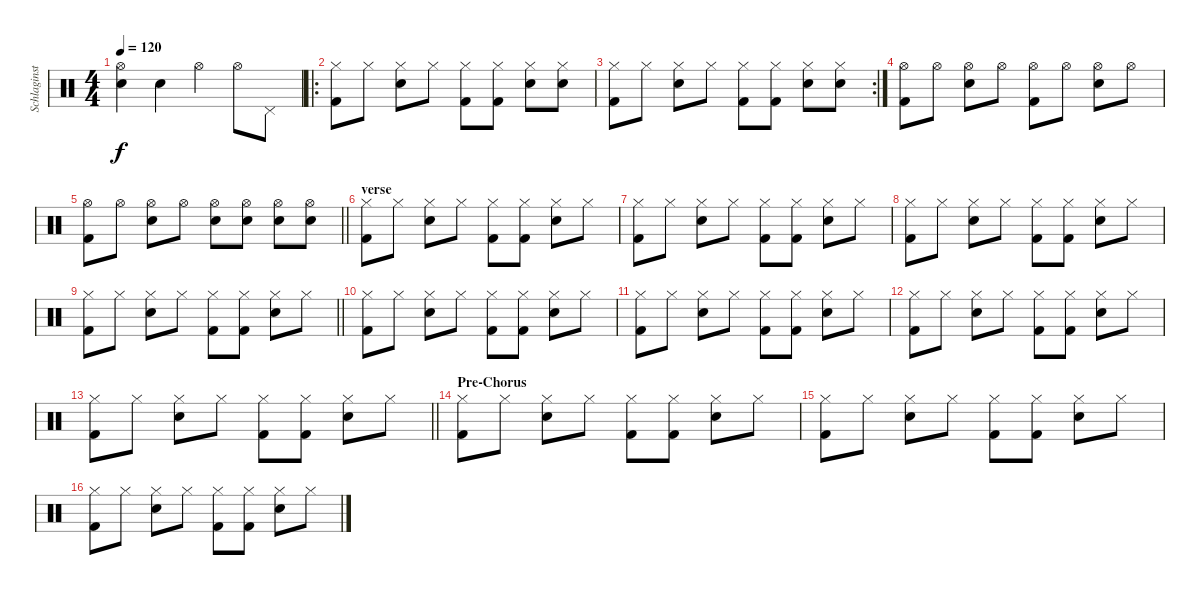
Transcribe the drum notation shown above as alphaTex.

\track ("Schlaginstrumente - Auswahl" "Schlaginst") {instrument percussion}
\staff {score}
\articulation defaults
\ts (4 4)
\tempo 120
\clef neutral
\ks c
("Hi-Hat (open)" "Electric Snare (hit)").4{dy f} "Electric Snare (hit)".4 "Hi-Hat (open)".4 "Hi-Hat (open)".8 "Pedal Hi-Hat (hit)".8 |
\ro
("Hi-Hat (closed)" "Kick (hit) 2").8 "Hi-Hat (closed)".8 ("Hi-Hat (closed)" "Electric Snare (hit)").8 "Hi-Hat (closed)".8 ("Hi-Hat (closed)" "Kick (hit) 2").8 ("Hi-Hat (closed)" "Kick (hit) 2").8 ("Hi-Hat (closed)" "Electric Snare (hit)").8 ("Hi-Hat (closed)" "Electric Snare (hit)").8 |
\rc 2
("Hi-Hat (closed)" "Kick (hit) 2").8 "Hi-Hat (closed)".8 ("Hi-Hat (closed)" "Electric Snare (hit)").8 "Hi-Hat (closed)".8 ("Hi-Hat (closed)" "Kick (hit) 2").8 ("Hi-Hat (closed)" "Kick (hit) 2").8 ("Hi-Hat (closed)" "Electric Snare (hit)").8 ("Hi-Hat (closed)" "Electric Snare (hit)").8 |
("Hi-Hat (open)" "Kick (hit) 2").8 "Hi-Hat (open)".8 ("Hi-Hat (open)" "Electric Snare (hit)").8 "Hi-Hat (open)".8 ("Hi-Hat (open)" "Kick (hit) 2").8 "Hi-Hat (open)".8 ("Hi-Hat (open)" "Electric Snare (hit)").8 "Hi-Hat (open)".8 |
\barLineRight lightlight
("Hi-Hat (open)" "Kick (hit) 2").8 "Hi-Hat (open)".8 ("Hi-Hat (open)" "Electric Snare (hit)").8 "Hi-Hat (open)".8 ("Hi-Hat (open)" "Electric Snare (hit)").8 ("Hi-Hat (open)" "Electric Snare (hit)").8 ("Hi-Hat (open)" "Electric Snare (hit)").8 ("Hi-Hat (open)" "Electric Snare (hit)").8 |
\section ("" "verse")
("Hi-Hat (closed)" "Kick (hit) 2").8 "Hi-Hat (closed)".8 ("Hi-Hat (closed)" "Electric Snare (hit)").8 "Hi-Hat (closed)".8 ("Hi-Hat (closed)" "Kick (hit) 2").8 ("Hi-Hat (closed)" "Kick (hit) 2").8 ("Hi-Hat (closed)" "Electric Snare (hit)").8 "Hi-Hat (closed)".8 |
("Hi-Hat (closed)" "Kick (hit) 2").8 "Hi-Hat (closed)".8 ("Hi-Hat (closed)" "Electric Snare (hit)").8 "Hi-Hat (closed)".8 ("Hi-Hat (closed)" "Kick (hit) 2").8 ("Hi-Hat (closed)" "Kick (hit) 2").8 ("Hi-Hat (closed)" "Electric Snare (hit)").8 "Hi-Hat (closed)".8 |
("Hi-Hat (closed)" "Kick (hit) 2").8 "Hi-Hat (closed)".8 ("Hi-Hat (closed)" "Electric Snare (hit)").8 "Hi-Hat (closed)".8 ("Hi-Hat (closed)" "Kick (hit) 2").8 ("Hi-Hat (closed)" "Kick (hit) 2").8 ("Hi-Hat (closed)" "Electric Snare (hit)").8 "Hi-Hat (closed)".8 |
\barLineRight lightlight
("Hi-Hat (closed)" "Kick (hit) 2").8 "Hi-Hat (closed)".8 ("Hi-Hat (closed)" "Electric Snare (hit)").8 "Hi-Hat (closed)".8 ("Hi-Hat (closed)" "Kick (hit) 2").8 ("Hi-Hat (closed)" "Kick (hit) 2").8 ("Hi-Hat (closed)" "Electric Snare (hit)").8 "Hi-Hat (closed)".8 |
("Hi-Hat (closed)" "Kick (hit) 2").8 "Hi-Hat (closed)".8 ("Hi-Hat (closed)" "Electric Snare (hit)").8 "Hi-Hat (closed)".8 ("Hi-Hat (closed)" "Kick (hit) 2").8 ("Hi-Hat (closed)" "Kick (hit) 2").8 ("Hi-Hat (closed)" "Electric Snare (hit)").8 "Hi-Hat (closed)".8 |
("Hi-Hat (closed)" "Kick (hit) 2").8 "Hi-Hat (closed)".8 ("Hi-Hat (closed)" "Electric Snare (hit)").8 "Hi-Hat (closed)".8 ("Hi-Hat (closed)" "Kick (hit) 2").8 ("Hi-Hat (closed)" "Kick (hit) 2").8 ("Hi-Hat (closed)" "Electric Snare (hit)").8 "Hi-Hat (closed)".8 |
("Hi-Hat (closed)" "Kick (hit) 2").8 "Hi-Hat (closed)".8 ("Hi-Hat (closed)" "Electric Snare (hit)").8 "Hi-Hat (closed)".8 ("Hi-Hat (closed)" "Kick (hit) 2").8 ("Hi-Hat (closed)" "Kick (hit) 2").8 ("Hi-Hat (closed)" "Electric Snare (hit)").8 "Hi-Hat (closed)".8 |
\barLineRight lightlight
("Hi-Hat (closed)" "Kick (hit) 2").8 "Hi-Hat (closed)".8 ("Hi-Hat (closed)" "Electric Snare (hit)").8 "Hi-Hat (closed)".8 ("Hi-Hat (closed)" "Kick (hit) 2").8 ("Hi-Hat (closed)" "Kick (hit) 2").8 ("Hi-Hat (closed)" "Electric Snare (hit)").8 "Hi-Hat (closed)".8 |
\section ("" "Pre-Chorus")
("Hi-Hat (closed)" "Kick (hit) 2").8 "Hi-Hat (closed)".8 ("Hi-Hat (closed)" "Electric Snare (hit)").8 "Hi-Hat (closed)".8 ("Hi-Hat (closed)" "Kick (hit) 2").8 ("Hi-Hat (closed)" "Kick (hit) 2").8 ("Hi-Hat (closed)" "Electric Snare (hit)").8 "Hi-Hat (closed)".8 |
("Hi-Hat (closed)" "Kick (hit) 2").8 "Hi-Hat (closed)".8 ("Hi-Hat (closed)" "Electric Snare (hit)").8 "Hi-Hat (closed)".8 ("Hi-Hat (closed)" "Kick (hit) 2").8 ("Hi-Hat (closed)" "Kick (hit) 2").8 ("Hi-Hat (closed)" "Electric Snare (hit)").8 "Hi-Hat (closed)".8 |
("Hi-Hat (closed)" "Kick (hit) 2").8 "Hi-Hat (closed)".8 ("Hi-Hat (closed)" "Electric Snare (hit)").8 "Hi-Hat (closed)".8 ("Hi-Hat (closed)" "Kick (hit) 2").8 ("Hi-Hat (closed)" "Kick (hit) 2").8 ("Hi-Hat (closed)" "Electric Snare (hit)").8 "Hi-Hat (closed)".8
